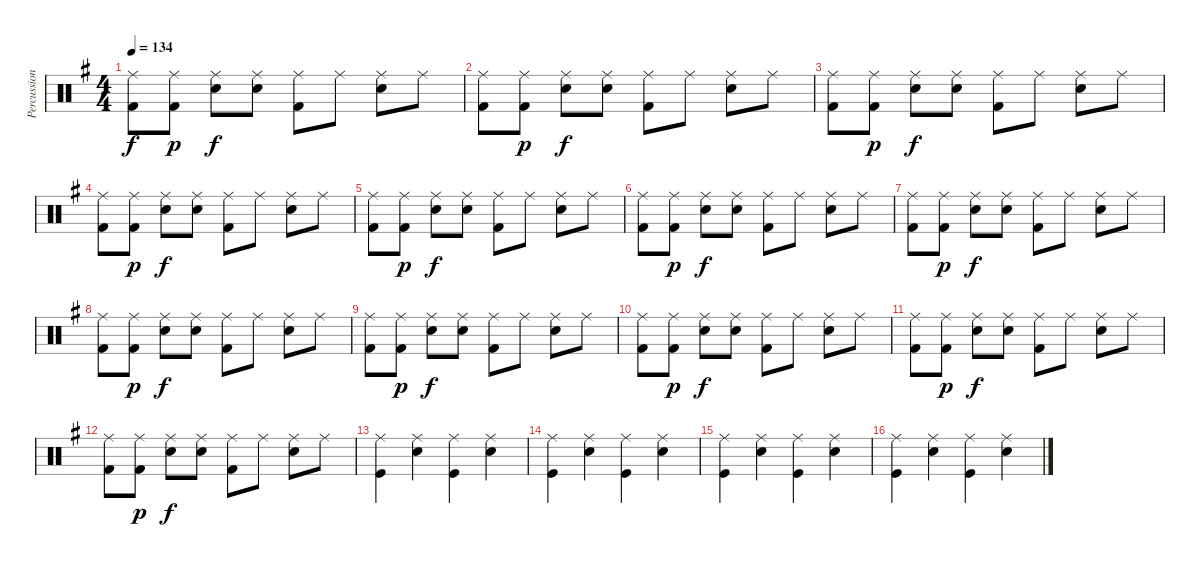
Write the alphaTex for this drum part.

\track ("Percussions" "Percussion") {instrument percussion}
\staff {score}
\articulation defaults
\ts (4 4)
\tempo 134
\clef neutral
\ks g
("Ride (middle)" "Kick (hit) 2").8{dy f} ("Ride (middle)" "Kick (hit) 2").8{dy p} ("Ride (middle)" "Snare (hit) 2").8{dy f} ("Ride (middle)" "Snare (hit) 2").8 ("Ride (middle)" "Kick (hit) 2").8 "Ride (middle)".8 ("Ride (middle)" "Snare (hit) 2").8 "Ride (middle)".8 |
("Ride (middle)" "Kick (hit) 2").8 ("Ride (middle)" "Kick (hit) 2").8{dy p} ("Ride (middle)" "Snare (hit) 2").8{dy f} ("Ride (middle)" "Snare (hit) 2").8 ("Ride (middle)" "Kick (hit) 2").8 "Ride (middle)".8 ("Ride (middle)" "Snare (hit) 2").8 "Ride (middle)".8 |
("Ride (middle)" "Kick (hit) 2").8 ("Ride (middle)" "Kick (hit) 2").8{dy p} ("Ride (middle)" "Snare (hit) 2").8{dy f} ("Ride (middle)" "Snare (hit) 2").8 ("Ride (middle)" "Kick (hit) 2").8 "Ride (middle)".8 ("Ride (middle)" "Snare (hit) 2").8 "Ride (middle)".8 |
("Ride (middle)" "Kick (hit) 2").8 ("Ride (middle)" "Kick (hit) 2").8{dy p} ("Ride (middle)" "Snare (hit) 2").8{dy f} ("Ride (middle)" "Snare (hit) 2").8 ("Ride (middle)" "Kick (hit) 2").8 "Ride (middle)".8 ("Ride (middle)" "Snare (hit) 2").8 "Ride (middle)".8 |
("Ride (middle)" "Kick (hit) 2").8 ("Ride (middle)" "Kick (hit) 2").8{dy p} ("Ride (middle)" "Snare (hit) 2").8{dy f} ("Ride (middle)" "Snare (hit) 2").8 ("Ride (middle)" "Kick (hit) 2").8 "Ride (middle)".8 ("Ride (middle)" "Snare (hit) 2").8 "Ride (middle)".8 |
("Ride (middle)" "Kick (hit) 2").8 ("Ride (middle)" "Kick (hit) 2").8{dy p} ("Ride (middle)" "Snare (hit) 2").8{dy f} ("Ride (middle)" "Snare (hit) 2").8 ("Ride (middle)" "Kick (hit) 2").8 "Ride (middle)".8 ("Ride (middle)" "Snare (hit) 2").8 "Ride (middle)".8 |
("Ride (middle)" "Kick (hit) 2").8 ("Ride (middle)" "Kick (hit) 2").8{dy p} ("Ride (middle)" "Snare (hit) 2").8{dy f} ("Ride (middle)" "Snare (hit) 2").8 ("Ride (middle)" "Kick (hit) 2").8 "Ride (middle)".8 ("Ride (middle)" "Snare (hit) 2").8 "Ride (middle)".8 |
("Ride (middle)" "Kick (hit) 2").8 ("Ride (middle)" "Kick (hit) 2").8{dy p} ("Ride (middle)" "Snare (hit) 2").8{dy f} ("Ride (middle)" "Snare (hit) 2").8 ("Ride (middle)" "Kick (hit) 2").8 "Ride (middle)".8 ("Ride (middle)" "Snare (hit) 2").8 "Ride (middle)".8 |
("Ride (middle)" "Kick (hit) 2").8 ("Ride (middle)" "Kick (hit) 2").8{dy p} ("Ride (middle)" "Snare (hit) 2").8{dy f} ("Ride (middle)" "Snare (hit) 2").8 ("Ride (middle)" "Kick (hit) 2").8 "Ride (middle)".8 ("Ride (middle)" "Snare (hit) 2").8 "Ride (middle)".8 |
("Ride (middle)" "Kick (hit) 2").8 ("Ride (middle)" "Kick (hit) 2").8{dy p} ("Ride (middle)" "Snare (hit) 2").8{dy f} ("Ride (middle)" "Snare (hit) 2").8 ("Ride (middle)" "Kick (hit) 2").8 "Ride (middle)".8 ("Ride (middle)" "Snare (hit) 2").8 "Ride (middle)".8 |
("Ride (middle)" "Kick (hit) 2").8 ("Ride (middle)" "Kick (hit) 2").8{dy p} ("Ride (middle)" "Snare (hit) 2").8{dy f} ("Ride (middle)" "Snare (hit) 2").8 ("Ride (middle)" "Kick (hit) 2").8 "Ride (middle)".8 ("Ride (middle)" "Snare (hit) 2").8 "Ride (middle)".8 |
("Ride (middle)" "Kick (hit) 2").8 ("Ride (middle)" "Kick (hit) 2").8{dy p} ("Ride (middle)" "Snare (hit) 2").8{dy f} ("Ride (middle)" "Snare (hit) 2").8 ("Ride (middle)" "Kick (hit) 2").8 "Ride (middle)".8 ("Ride (middle)" "Snare (hit) 2").8 "Ride (middle)".8 |
("Ride (middle)" "Kick (hit)").4 ("Ride (middle)" "Snare (hit) 2").4 ("Ride (middle)" "Kick (hit)").4 ("Ride (middle)" "Snare (hit) 2").4 |
("Ride (middle)" "Kick (hit)").4 ("Ride (middle)" "Snare (hit) 2").4 ("Ride (middle)" "Kick (hit)").4 ("Ride (middle)" "Snare (hit) 2").4 |
("Ride (middle)" "Kick (hit)").4 ("Ride (middle)" "Snare (hit) 2").4 ("Ride (middle)" "Kick (hit)").4 ("Ride (middle)" "Snare (hit) 2").4 |
("Ride (middle)" "Kick (hit)").4 ("Ride (middle)" "Snare (hit) 2").4 ("Ride (middle)" "Kick (hit)").4 ("Ride (middle)" "Snare (hit) 2").4
